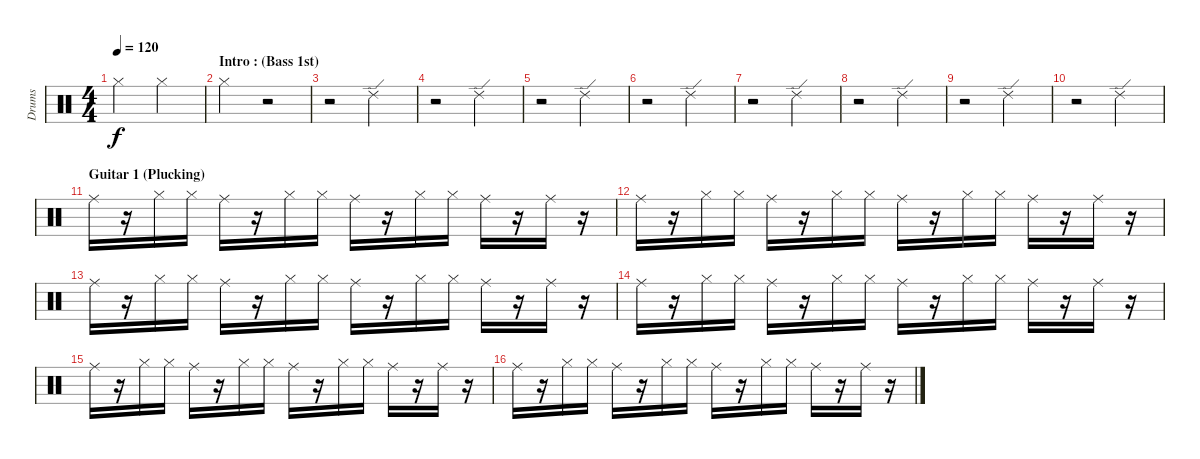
\track ("Drums" "Drums") {instrument percussion}
\staff {score}
\articulation defaults
\ts (4 4)
\tempo 120
\clef neutral
\ks c "Hi-Hat (closed)".2{dy f} "Hi-Hat (closed)".2
|
\section ("" "Intro : (Bass 1st)")
"Hi-Hat (closed)".2 r.2 |
r.2 "Ride (edge) 2".2 |
r.2 "Ride (edge) 2".2 |
r.2 "Ride (edge) 2".2 |
r.2 "Ride (edge) 2".2 |
r.2 "Ride (edge) 2".2 |
r.2 "Ride (edge) 2".2 |
r.2 "Ride (edge) 2".2 |
r.2 "Ride (edge) 2".2 |
\section ("" "Guitar 1 (Plucking)")
"Ride (middle)".16 r.16 "Hi-Hat (closed)".16 "Hi-Hat (closed)".16 "Ride (middle)".16 r.16 "Hi-Hat (closed)".16 "Hi-Hat (closed)".16 "Ride (middle)".16 r.16 "Hi-Hat (closed)".16 "Hi-Hat (closed)".16 "Ride (middle)".16 r.16 "Ride (middle)".16 r.16 |
"Ride (middle)".16 r.16 "Hi-Hat (closed)".16 "Hi-Hat (closed)".16 "Ride (middle)".16 r.16 "Hi-Hat (closed)".16 "Hi-Hat (closed)".16 "Ride (middle)".16 r.16 "Hi-Hat (closed)".16 "Hi-Hat (closed)".16 "Ride (middle)".16 r.16 "Ride (middle)".16 r.16 |
"Ride (middle)".16 r.16 "Hi-Hat (closed)".16 "Hi-Hat (closed)".16 "Ride (middle)".16 r.16 "Hi-Hat (closed)".16 "Hi-Hat (closed)".16 "Ride (middle)".16 r.16 "Hi-Hat (closed)".16 "Hi-Hat (closed)".16 "Ride (middle)".16 r.16 "Ride (middle)".16 r.16 |
"Ride (middle)".16 r.16 "Hi-Hat (closed)".16 "Hi-Hat (closed)".16 "Ride (middle)".16 r.16 "Hi-Hat (closed)".16 "Hi-Hat (closed)".16 "Ride (middle)".16 r.16 "Hi-Hat (closed)".16 "Hi-Hat (closed)".16 "Ride (middle)".16 r.16 "Ride (middle)".16 r.16 |
"Ride (middle)".16 r.16 "Hi-Hat (closed)".16 "Hi-Hat (closed)".16 "Ride (middle)".16 r.16 "Hi-Hat (closed)".16 "Hi-Hat (closed)".16 "Ride (middle)".16 r.16 "Hi-Hat (closed)".16 "Hi-Hat (closed)".16 "Ride (middle)".16 r.16 "Ride (middle)".16 r.16 |
"Ride (middle)".16 r.16 "Hi-Hat (closed)".16 "Hi-Hat (closed)".16 "Ride (middle)".16 r.16 "Hi-Hat (closed)".16 "Hi-Hat (closed)".16 "Ride (middle)".16 r.16 "Hi-Hat (closed)".16 "Hi-Hat (closed)".16 "Ride (middle)".16 r.16 "Ride (middle)".16 r.16
